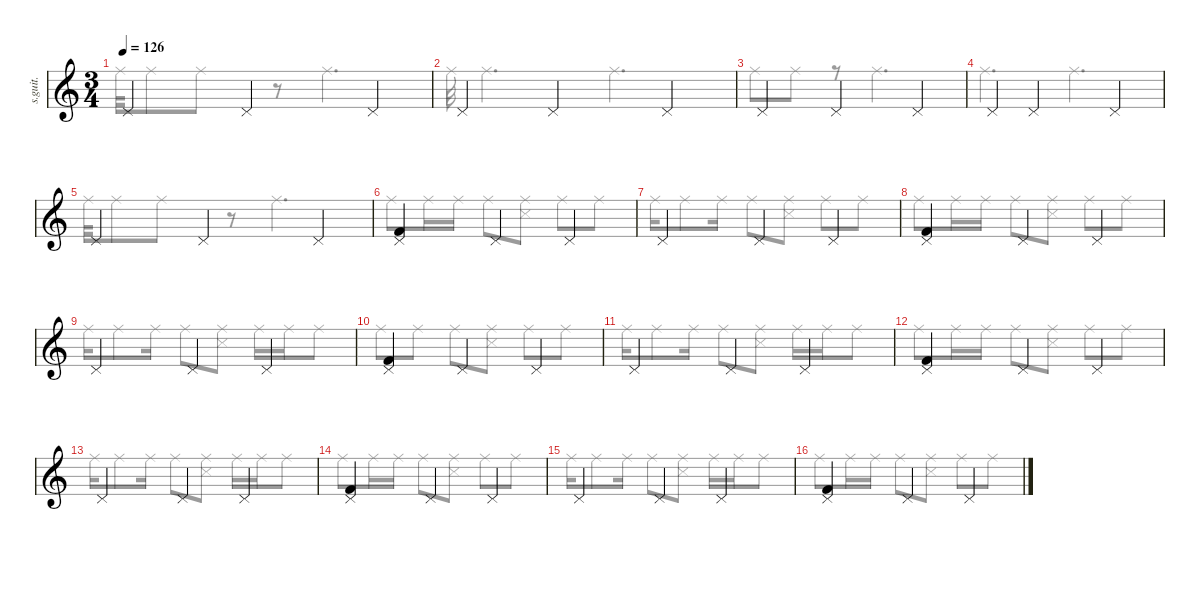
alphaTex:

\defaultSystemsLayout 4
\hideDynamics
\bracketExtendMode nobrackets
\track ("Percussion" "s.guit.") {instrument percussion}
\staff {score}
\articulation defaults
\voice
\ts (3 4)
\tempo 126
\clef g2
\ks c "Pedal Hi-Hat (hit)".4{lyrics (0 "") lyrics (1 "") lyrics (2 "") lyrics (3 "") lyrics (4 "") dy mf} "Pedal Hi-Hat (hit)".4{lyrics (0 "") lyrics (1 "") lyrics (2 "") lyrics (3 "") lyrics (4 "")} "Pedal Hi-Hat (hit)".4{lyrics (0 "") lyrics (1 "") lyrics (2 "") lyrics (3 "") lyrics (4 "")}
|
"Pedal Hi-Hat (hit)".4{lyrics (0 "") lyrics (1 "") lyrics (2 "") lyrics (3 "") lyrics (4 "")} "Pedal Hi-Hat (hit)".4{lyrics (0 "") lyrics (1 "") lyrics (2 "") lyrics (3 "") lyrics (4 "")} "Pedal Hi-Hat (hit)".4{lyrics (0 "") lyrics (1 "") lyrics (2 "") lyrics (3 "") lyrics (4 "")} |
"Pedal Hi-Hat (hit)".4{lyrics (0 "") lyrics (1 "") lyrics (2 "") lyrics (3 "") lyrics (4 "")} "Pedal Hi-Hat (hit)".4{lyrics (0 "") lyrics (1 "") lyrics (2 "") lyrics (3 "") lyrics (4 "")} "Pedal Hi-Hat (hit)".4{lyrics (0 "") lyrics (1 "") lyrics (2 "") lyrics (3 "") lyrics (4 "")} |
"Pedal Hi-Hat (hit)".4{lyrics (0 "") lyrics (1 "") lyrics (2 "") lyrics (3 "") lyrics (4 "")} "Pedal Hi-Hat (hit)".4{lyrics (0 "") lyrics (1 "") lyrics (2 "") lyrics (3 "") lyrics (4 "")} "Pedal Hi-Hat (hit)".4{lyrics (0 "") lyrics (1 "") lyrics (2 "") lyrics (3 "") lyrics (4 "")} |
"Pedal Hi-Hat (hit)".4{lyrics (0 "") lyrics (1 "") lyrics (2 "") lyrics (3 "") lyrics (4 "")} "Pedal Hi-Hat (hit)".4{lyrics (0 "") lyrics (1 "") lyrics (2 "") lyrics (3 "") lyrics (4 "")} "Pedal Hi-Hat (hit)".4{lyrics (0 "") lyrics (1 "") lyrics (2 "") lyrics (3 "") lyrics (4 "")} |
("Pedal Hi-Hat (hit)" "Kick (hit) 2").4{lyrics (0 "") lyrics (1 "") lyrics (2 "") lyrics (3 "") lyrics (4 "")} "Pedal Hi-Hat (hit)".4{lyrics (0 "") lyrics (1 "") lyrics (2 "") lyrics (3 "") lyrics (4 "")} "Pedal Hi-Hat (hit)".4{lyrics (0 "") lyrics (1 "") lyrics (2 "") lyrics (3 "") lyrics (4 "")} |
"Pedal Hi-Hat (hit)".4{lyrics (0 "") lyrics (1 "") lyrics (2 "") lyrics (3 "") lyrics (4 "")} "Pedal Hi-Hat (hit)".4{lyrics (0 "") lyrics (1 "") lyrics (2 "") lyrics (3 "") lyrics (4 "")} "Pedal Hi-Hat (hit)".4{lyrics (0 "") lyrics (1 "") lyrics (2 "") lyrics (3 "") lyrics (4 "")} |
("Pedal Hi-Hat (hit)" "Kick (hit) 2").4{lyrics (0 "") lyrics (1 "") lyrics (2 "") lyrics (3 "") lyrics (4 "")} "Pedal Hi-Hat (hit)".4{lyrics (0 "") lyrics (1 "") lyrics (2 "") lyrics (3 "") lyrics (4 "")} "Pedal Hi-Hat (hit)".4{lyrics (0 "") lyrics (1 "") lyrics (2 "") lyrics (3 "") lyrics (4 "")} |
"Pedal Hi-Hat (hit)".4{lyrics (0 "") lyrics (1 "") lyrics (2 "") lyrics (3 "") lyrics (4 "")} "Pedal Hi-Hat (hit)".4{lyrics (0 "") lyrics (1 "") lyrics (2 "") lyrics (3 "") lyrics (4 "")} "Pedal Hi-Hat (hit)".4{lyrics (0 "") lyrics (1 "") lyrics (2 "") lyrics (3 "") lyrics (4 "")} |
("Pedal Hi-Hat (hit)" "Kick (hit) 2").4{lyrics (0 "") lyrics (1 "") lyrics (2 "") lyrics (3 "") lyrics (4 "")} "Pedal Hi-Hat (hit)".4{lyrics (0 "") lyrics (1 "") lyrics (2 "") lyrics (3 "") lyrics (4 "")} "Pedal Hi-Hat (hit)".4{lyrics (0 "") lyrics (1 "") lyrics (2 "") lyrics (3 "") lyrics (4 "")} |
"Pedal Hi-Hat (hit)".4{lyrics (0 "") lyrics (1 "") lyrics (2 "") lyrics (3 "") lyrics (4 "")} "Pedal Hi-Hat (hit)".4{lyrics (0 "") lyrics (1 "") lyrics (2 "") lyrics (3 "") lyrics (4 "")} "Pedal Hi-Hat (hit)".4{lyrics (0 "") lyrics (1 "") lyrics (2 "") lyrics (3 "") lyrics (4 "")} |
("Pedal Hi-Hat (hit)" "Kick (hit) 2").4{lyrics (0 "") lyrics (1 "") lyrics (2 "") lyrics (3 "") lyrics (4 "")} "Pedal Hi-Hat (hit)".4{lyrics (0 "") lyrics (1 "") lyrics (2 "") lyrics (3 "") lyrics (4 "")} "Pedal Hi-Hat (hit)".4{lyrics (0 "") lyrics (1 "") lyrics (2 "") lyrics (3 "") lyrics (4 "")} |
"Pedal Hi-Hat (hit)".4{lyrics (0 "") lyrics (1 "") lyrics (2 "") lyrics (3 "") lyrics (4 "")} "Pedal Hi-Hat (hit)".4{lyrics (0 "") lyrics (1 "") lyrics (2 "") lyrics (3 "") lyrics (4 "")} "Pedal Hi-Hat (hit)".4{lyrics (0 "") lyrics (1 "") lyrics (2 "") lyrics (3 "") lyrics (4 "")} |
("Pedal Hi-Hat (hit)" "Kick (hit) 2").4{lyrics (0 "") lyrics (1 "") lyrics (2 "") lyrics (3 "") lyrics (4 "")} "Pedal Hi-Hat (hit)".4{lyrics (0 "") lyrics (1 "") lyrics (2 "") lyrics (3 "") lyrics (4 "")} "Pedal Hi-Hat (hit)".4{lyrics (0 "") lyrics (1 "") lyrics (2 "") lyrics (3 "") lyrics (4 "")} |
"Pedal Hi-Hat (hit)".4{lyrics (0 "") lyrics (1 "") lyrics (2 "") lyrics (3 "") lyrics (4 "")} "Pedal Hi-Hat (hit)".4{lyrics (0 "") lyrics (1 "") lyrics (2 "") lyrics (3 "") lyrics (4 "")} "Pedal Hi-Hat (hit)".4{lyrics (0 "") lyrics (1 "") lyrics (2 "") lyrics (3 "") lyrics (4 "")} |
("Pedal Hi-Hat (hit)" "Kick (hit) 2").4{lyrics (0 "") lyrics (1 "") lyrics (2 "") lyrics (3 "") lyrics (4 "")} "Pedal Hi-Hat (hit)".4{lyrics (0 "") lyrics (1 "") lyrics (2 "") lyrics (3 "") lyrics (4 "")} "Pedal Hi-Hat (hit)".4{lyrics (0 "") lyrics (1 "") lyrics (2 "") lyrics (3 "") lyrics (4 "")}
\voice
\clef g2
\ottava regular
\simile none
\ks c "Ride (middle)".32{lyrics (0 "") lyrics (1 "") lyrics (2 "") lyrics (3 "") lyrics (4 "") dy mf} "Ride (middle)".8{lyrics (0 "") lyrics (1 "") lyrics (2 "") lyrics (3 "") lyrics (4 "")} "Ride (middle)".8{lyrics (0 "") lyrics (1 "") lyrics (2 "") lyrics (3 "") lyrics (4 "")}
r.8 "Ride (middle)".4{d lyrics (0 "") lyrics (1 "") lyrics (2 "") lyrics (3 "") lyrics (4 "")} |
"Ride (middle)".32{lyrics (0 "") lyrics (1 "") lyrics (2 "") lyrics (3 "") lyrics (4 "")} "Ride (middle)".4{d lyrics (0 "") lyrics (1 "") lyrics (2 "") lyrics (3 "") lyrics (4 "")} "Ride (middle)".4{d lyrics (0 "") lyrics (1 "") lyrics (2 "") lyrics (3 "") lyrics (4 "")} |
"Ride (middle)".8{lyrics (0 "") lyrics (1 "") lyrics (2 "") lyrics (3 "") lyrics (4 "")} "Ride (middle)".8{lyrics (0 "") lyrics (1 "") lyrics (2 "") lyrics (3 "") lyrics (4 "")} r.8 "Ride (middle)".4{d lyrics (0 "") lyrics (1 "") lyrics (2 "") lyrics (3 "") lyrics (4 "")} |
"Ride (middle)".4{d lyrics (0 "") lyrics (1 "") lyrics (2 "") lyrics (3 "") lyrics (4 "")} "Ride (middle)".4{d lyrics (0 "") lyrics (1 "") lyrics (2 "") lyrics (3 "") lyrics (4 "")} |
"Ride (middle)".32{lyrics (0 "") lyrics (1 "") lyrics (2 "") lyrics (3 "") lyrics (4 "")} "Ride (middle)".8{lyrics (0 "") lyrics (1 "") lyrics (2 "") lyrics (3 "") lyrics (4 "")} "Ride (middle)".8{lyrics (0 "") lyrics (1 "") lyrics (2 "") lyrics (3 "") lyrics (4 "")} r.8 "Ride (middle)".4{d lyrics (0 "") lyrics (1 "") lyrics (2 "") lyrics (3 "") lyrics (4 "")} |
"Ride (middle)".8{lyrics (0 "") lyrics (1 "") lyrics (2 "") lyrics (3 "") lyrics (4 "")} "Ride (middle)".16{lyrics (0 "") lyrics (1 "") lyrics (2 "") lyrics (3 "") lyrics (4 "")} "Ride (middle)".16{lyrics (0 "") lyrics (1 "") lyrics (2 "") lyrics (3 "") lyrics (4 "")} "Ride (middle)".8{lyrics (0 "") lyrics (1 "") lyrics (2 "") lyrics (3 "") lyrics (4 "")} ("Ride (middle)" "Snare (side stick) 3").8{lyrics (0 "") lyrics (1 "") lyrics (2 "") lyrics (3 "") lyrics (4 "")} "Ride (middle)".8{lyrics (0 "") lyrics (1 "") lyrics (2 "") lyrics (3 "") lyrics (4 "")} "Ride (middle)".8{lyrics (0 "") lyrics (1 "") lyrics (2 "") lyrics (3 "") lyrics (4 "")} |
"Ride (middle)".16{lyrics (0 "") lyrics (1 "") lyrics (2 "") lyrics (3 "") lyrics (4 "")} "Ride (middle)".8{lyrics (0 "") lyrics (1 "") lyrics (2 "") lyrics (3 "") lyrics (4 "")} "Ride (middle)".16{lyrics (0 "") lyrics (1 "") lyrics (2 "") lyrics (3 "") lyrics (4 "")} "Ride (middle)".8{lyrics (0 "") lyrics (1 "") lyrics (2 "") lyrics (3 "") lyrics (4 "")} ("Ride (middle)" "Snare (side stick) 3").8{lyrics (0 "") lyrics (1 "") lyrics (2 "") lyrics (3 "") lyrics (4 "")} "Ride (middle)".8{lyrics (0 "") lyrics (1 "") lyrics (2 "") lyrics (3 "") lyrics (4 "")} "Ride (middle)".8{lyrics (0 "") lyrics (1 "") lyrics (2 "") lyrics (3 "") lyrics (4 "")} |
"Ride (middle)".8{lyrics (0 "") lyrics (1 "") lyrics (2 "") lyrics (3 "") lyrics (4 "")} "Ride (middle)".16{lyrics (0 "") lyrics (1 "") lyrics (2 "") lyrics (3 "") lyrics (4 "")} "Ride (middle)".16{lyrics (0 "") lyrics (1 "") lyrics (2 "") lyrics (3 "") lyrics (4 "")} "Ride (middle)".8{lyrics (0 "") lyrics (1 "") lyrics (2 "") lyrics (3 "") lyrics (4 "")} ("Ride (middle)" "Snare (side stick) 3").8{lyrics (0 "") lyrics (1 "") lyrics (2 "") lyrics (3 "") lyrics (4 "")} "Ride (middle)".8{lyrics (0 "") lyrics (1 "") lyrics (2 "") lyrics (3 "") lyrics (4 "")} "Ride (middle)".8{lyrics (0 "") lyrics (1 "") lyrics (2 "") lyrics (3 "") lyrics (4 "")} |
"Ride (middle)".16{lyrics (0 "") lyrics (1 "") lyrics (2 "") lyrics (3 "") lyrics (4 "")} "Ride (middle)".8{lyrics (0 "") lyrics (1 "") lyrics (2 "") lyrics (3 "") lyrics (4 "")} "Ride (middle)".16{lyrics (0 "") lyrics (1 "") lyrics (2 "") lyrics (3 "") lyrics (4 "")} "Ride (middle)".8{lyrics (0 "") lyrics (1 "") lyrics (2 "") lyrics (3 "") lyrics (4 "")} ("Ride (middle)" "Snare (side stick) 3").8{lyrics (0 "") lyrics (1 "") lyrics (2 "") lyrics (3 "") lyrics (4 "")} "Ride (middle)".16{lyrics (0 "") lyrics (1 "") lyrics (2 "") lyrics (3 "") lyrics (4 "")} "Ride (middle)".16{lyrics (0 "") lyrics (1 "") lyrics (2 "") lyrics (3 "") lyrics (4 "")} "Ride (middle)".8{lyrics (0 "") lyrics (1 "") lyrics (2 "") lyrics (3 "") lyrics (4 "")} |
"Ride (middle)".8{lyrics (0 "") lyrics (1 "") lyrics (2 "") lyrics (3 "") lyrics (4 "")} "Ride (middle)".8{lyrics (0 "") lyrics (1 "") lyrics (2 "") lyrics (3 "") lyrics (4 "")} "Ride (middle)".8{lyrics (0 "") lyrics (1 "") lyrics (2 "") lyrics (3 "") lyrics (4 "")} ("Ride (middle)" "Snare (side stick) 3").8{lyrics (0 "") lyrics (1 "") lyrics (2 "") lyrics (3 "") lyrics (4 "")} "Ride (middle)".8{lyrics (0 "") lyrics (1 "") lyrics (2 "") lyrics (3 "") lyrics (4 "")} "Ride (middle)".8{lyrics (0 "") lyrics (1 "") lyrics (2 "") lyrics (3 "") lyrics (4 "")} |
"Ride (middle)".16{lyrics (0 "") lyrics (1 "") lyrics (2 "") lyrics (3 "") lyrics (4 "")} "Ride (middle)".8{lyrics (0 "") lyrics (1 "") lyrics (2 "") lyrics (3 "") lyrics (4 "")} "Ride (middle)".16{lyrics (0 "") lyrics (1 "") lyrics (2 "") lyrics (3 "") lyrics (4 "")} "Ride (middle)".8{lyrics (0 "") lyrics (1 "") lyrics (2 "") lyrics (3 "") lyrics (4 "")} ("Ride (middle)" "Snare (side stick) 3").8{lyrics (0 "") lyrics (1 "") lyrics (2 "") lyrics (3 "") lyrics (4 "")} "Ride (middle)".16{lyrics (0 "") lyrics (1 "") lyrics (2 "") lyrics (3 "") lyrics (4 "")} "Ride (middle)".16{lyrics (0 "") lyrics (1 "") lyrics (2 "") lyrics (3 "") lyrics (4 "")} "Ride (middle)".8{lyrics (0 "") lyrics (1 "") lyrics (2 "") lyrics (3 "") lyrics (4 "")} |
"Ride (middle)".8{lyrics (0 "") lyrics (1 "") lyrics (2 "") lyrics (3 "") lyrics (4 "")} "Ride (middle)".16{lyrics (0 "") lyrics (1 "") lyrics (2 "") lyrics (3 "") lyrics (4 "")} "Ride (middle)".16{lyrics (0 "") lyrics (1 "") lyrics (2 "") lyrics (3 "") lyrics (4 "")} "Ride (middle)".8{lyrics (0 "") lyrics (1 "") lyrics (2 "") lyrics (3 "") lyrics (4 "")} ("Ride (middle)" "Snare (side stick) 3").8{lyrics (0 "") lyrics (1 "") lyrics (2 "") lyrics (3 "") lyrics (4 "")} "Ride (middle)".8{lyrics (0 "") lyrics (1 "") lyrics (2 "") lyrics (3 "") lyrics (4 "")} "Ride (middle)".8{lyrics (0 "") lyrics (1 "") lyrics (2 "") lyrics (3 "") lyrics (4 "")} |
"Ride (middle)".16{lyrics (0 "") lyrics (1 "") lyrics (2 "") lyrics (3 "") lyrics (4 "")} "Ride (middle)".8{lyrics (0 "") lyrics (1 "") lyrics (2 "") lyrics (3 "") lyrics (4 "")} "Ride (middle)".16{lyrics (0 "") lyrics (1 "") lyrics (2 "") lyrics (3 "") lyrics (4 "")} "Ride (middle)".8{lyrics (0 "") lyrics (1 "") lyrics (2 "") lyrics (3 "") lyrics (4 "")} ("Ride (middle)" "Snare (side stick) 3").8{lyrics (0 "") lyrics (1 "") lyrics (2 "") lyrics (3 "") lyrics (4 "")} "Ride (middle)".16{lyrics (0 "") lyrics (1 "") lyrics (2 "") lyrics (3 "") lyrics (4 "")} "Ride (middle)".16{lyrics (0 "") lyrics (1 "") lyrics (2 "") lyrics (3 "") lyrics (4 "")} "Ride (middle)".8{lyrics (0 "") lyrics (1 "") lyrics (2 "") lyrics (3 "") lyrics (4 "")} |
"Ride (middle)".8{lyrics (0 "") lyrics (1 "") lyrics (2 "") lyrics (3 "") lyrics (4 "")} "Ride (middle)".16{lyrics (0 "") lyrics (1 "") lyrics (2 "") lyrics (3 "") lyrics (4 "")} "Ride (middle)".16{lyrics (0 "") lyrics (1 "") lyrics (2 "") lyrics (3 "") lyrics (4 "")} "Ride (middle)".8{lyrics (0 "") lyrics (1 "") lyrics (2 "") lyrics (3 "") lyrics (4 "")} ("Ride (middle)" "Snare (side stick) 3").8{lyrics (0 "") lyrics (1 "") lyrics (2 "") lyrics (3 "") lyrics (4 "")} "Ride (middle)".8{lyrics (0 "") lyrics (1 "") lyrics (2 "") lyrics (3 "") lyrics (4 "")} "Ride (middle)".8{lyrics (0 "") lyrics (1 "") lyrics (2 "") lyrics (3 "") lyrics (4 "")} |
"Ride (middle)".16{lyrics (0 "") lyrics (1 "") lyrics (2 "") lyrics (3 "") lyrics (4 "")} "Ride (middle)".8{lyrics (0 "") lyrics (1 "") lyrics (2 "") lyrics (3 "") lyrics (4 "")} "Ride (middle)".16{lyrics (0 "") lyrics (1 "") lyrics (2 "") lyrics (3 "") lyrics (4 "")} "Ride (middle)".8{lyrics (0 "") lyrics (1 "") lyrics (2 "") lyrics (3 "") lyrics (4 "")} ("Ride (middle)" "Snare (side stick) 3").8{lyrics (0 "") lyrics (1 "") lyrics (2 "") lyrics (3 "") lyrics (4 "")} "Ride (middle)".16{lyrics (0 "") lyrics (1 "") lyrics (2 "") lyrics (3 "") lyrics (4 "")} "Ride (middle)".16{lyrics (0 "") lyrics (1 "") lyrics (2 "") lyrics (3 "") lyrics (4 "")} "Ride (middle)".8{lyrics (0 "") lyrics (1 "") lyrics (2 "") lyrics (3 "") lyrics (4 "")} |
"Ride (middle)".8{lyrics (0 "") lyrics (1 "") lyrics (2 "") lyrics (3 "") lyrics (4 "")} "Ride (middle)".16{lyrics (0 "") lyrics (1 "") lyrics (2 "") lyrics (3 "") lyrics (4 "")} "Ride (middle)".16{lyrics (0 "") lyrics (1 "") lyrics (2 "") lyrics (3 "") lyrics (4 "")} "Ride (middle)".8{lyrics (0 "") lyrics (1 "") lyrics (2 "") lyrics (3 "") lyrics (4 "")} ("Ride (middle)" "Snare (side stick) 3").8{lyrics (0 "") lyrics (1 "") lyrics (2 "") lyrics (3 "") lyrics (4 "")} "Ride (middle)".8{lyrics (0 "") lyrics (1 "") lyrics (2 "") lyrics (3 "") lyrics (4 "")} "Ride (middle)".8{lyrics (0 "") lyrics (1 "") lyrics (2 "") lyrics (3 "") lyrics (4 "")}
